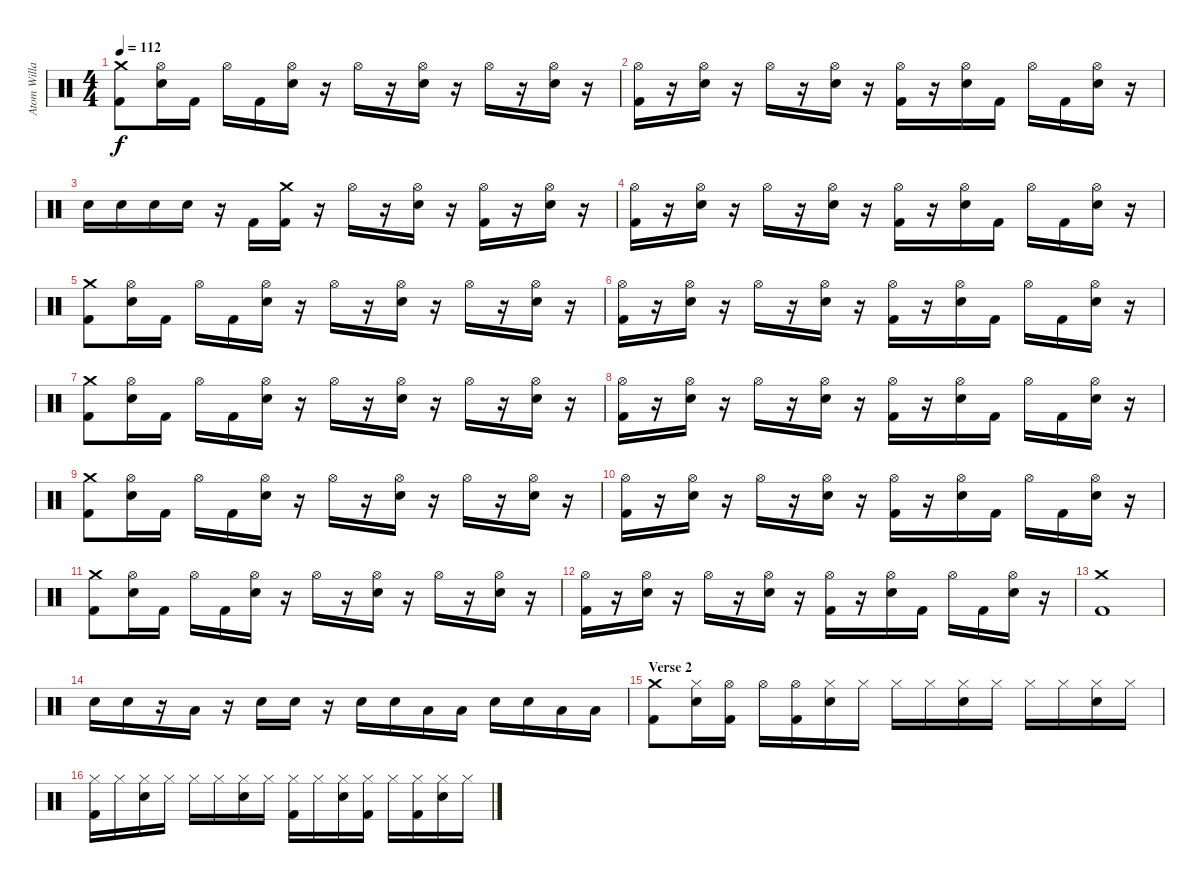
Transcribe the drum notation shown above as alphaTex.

\track ("Atom Willard Drums" "Atom Willa") {instrument percussion}
\staff {score}
\articulation defaults
\ts (4 4)
\tempo 112
\clef neutral
\ks c
("Crash medium (hit)" "Kick (hit) 2").8{dy f} ("Hi-Hat (open)" "Electric Snare (hit)").16 "Kick (hit) 2".16 "Hi-Hat (open)".16 "Kick (hit) 2".16 ("Hi-Hat (open)" "Electric Snare (hit)").16 r.16 "Hi-Hat (open)".16 r.16 ("Hi-Hat (open)" "Electric Snare (hit)").16 r.16 "Hi-Hat (open)".16 r.16 ("Hi-Hat (open)" "Electric Snare (hit)").16 r.16 |
("Hi-Hat (open)" "Kick (hit) 2").16 r.16 ("Hi-Hat (open)" "Electric Snare (hit)").16 r.16 "Hi-Hat (open)".16 r.16 ("Hi-Hat (open)" "Electric Snare (hit)").16 r.16 ("Hi-Hat (open)" "Kick (hit) 2").16 r.16 ("Hi-Hat (open)" "Electric Snare (hit)").16 "Kick (hit) 2".16 "Hi-Hat (open)".16 "Kick (hit) 2".16 ("Hi-Hat (open)" "Electric Snare (hit)").16 r.16 |
"Electric Snare (hit)".16 "Electric Snare (hit)".16 "Electric Snare (hit)".16 "Electric Snare (hit)".16 r.16 "Kick (hit) 2".16 ("Crash medium (hit)" "Kick (hit) 2").16 r.16 "Hi-Hat (open)".16 r.16 ("Hi-Hat (open)" "Electric Snare (hit)").16 r.16 ("Hi-Hat (open)" "Kick (hit) 2").16 r.16 ("Hi-Hat (open)" "Electric Snare (hit)").16 r.16 |
("Hi-Hat (open)" "Kick (hit) 2").16 r.16 ("Hi-Hat (open)" "Electric Snare (hit)").16 r.16 "Hi-Hat (open)".16 r.16 ("Hi-Hat (open)" "Electric Snare (hit)").16 r.16 ("Hi-Hat (open)" "Kick (hit) 2").16 r.16 ("Hi-Hat (open)" "Electric Snare (hit)").16 "Kick (hit) 2".16 "Hi-Hat (open)".16 "Kick (hit) 2".16 ("Hi-Hat (open)" "Electric Snare (hit)").16 r.16 |
("Crash medium (hit)" "Kick (hit) 2").8 ("Hi-Hat (open)" "Electric Snare (hit)").16 "Kick (hit) 2".16 "Hi-Hat (open)".16 "Kick (hit) 2".16 ("Hi-Hat (open)" "Electric Snare (hit)").16 r.16 "Hi-Hat (open)".16 r.16 ("Hi-Hat (open)" "Electric Snare (hit)").16 r.16 "Hi-Hat (open)".16 r.16 ("Hi-Hat (open)" "Electric Snare (hit)").16 r.16 |
("Hi-Hat (open)" "Kick (hit) 2").16 r.16 ("Hi-Hat (open)" "Electric Snare (hit)").16 r.16 "Hi-Hat (open)".16 r.16 ("Hi-Hat (open)" "Electric Snare (hit)").16 r.16 ("Hi-Hat (open)" "Kick (hit) 2").16 r.16 ("Hi-Hat (open)" "Electric Snare (hit)").16 "Kick (hit) 2".16 "Hi-Hat (open)".16 "Kick (hit) 2".16 ("Hi-Hat (open)" "Electric Snare (hit)").16 r.16 |
("Crash medium (hit)" "Kick (hit) 2").8 ("Hi-Hat (open)" "Electric Snare (hit)").16 "Kick (hit) 2".16 "Hi-Hat (open)".16 "Kick (hit) 2".16 ("Hi-Hat (open)" "Electric Snare (hit)").16 r.16 "Hi-Hat (open)".16 r.16 ("Hi-Hat (open)" "Electric Snare (hit)").16 r.16 "Hi-Hat (open)".16 r.16 ("Hi-Hat (open)" "Electric Snare (hit)").16 r.16 |
("Hi-Hat (open)" "Kick (hit) 2").16 r.16 ("Hi-Hat (open)" "Electric Snare (hit)").16 r.16 "Hi-Hat (open)".16 r.16 ("Hi-Hat (open)" "Electric Snare (hit)").16 r.16 ("Hi-Hat (open)" "Kick (hit) 2").16 r.16 ("Hi-Hat (open)" "Electric Snare (hit)").16 "Kick (hit) 2".16 "Hi-Hat (open)".16 "Kick (hit) 2".16 ("Hi-Hat (open)" "Electric Snare (hit)").16 r.16 |
("Crash medium (hit)" "Kick (hit) 2").8 ("Hi-Hat (open)" "Electric Snare (hit)").16 "Kick (hit) 2".16 "Hi-Hat (open)".16 "Kick (hit) 2".16 ("Hi-Hat (open)" "Electric Snare (hit)").16 r.16 "Hi-Hat (open)".16 r.16 ("Hi-Hat (open)" "Electric Snare (hit)").16 r.16 "Hi-Hat (open)".16 r.16 ("Hi-Hat (open)" "Electric Snare (hit)").16 r.16 |
("Hi-Hat (open)" "Kick (hit) 2").16 r.16 ("Hi-Hat (open)" "Electric Snare (hit)").16 r.16 "Hi-Hat (open)".16 r.16 ("Hi-Hat (open)" "Electric Snare (hit)").16 r.16 ("Hi-Hat (open)" "Kick (hit) 2").16 r.16 ("Hi-Hat (open)" "Electric Snare (hit)").16 "Kick (hit) 2".16 "Hi-Hat (open)".16 "Kick (hit) 2".16 ("Hi-Hat (open)" "Electric Snare (hit)").16 r.16 |
("Crash medium (hit)" "Kick (hit) 2").8 ("Hi-Hat (open)" "Electric Snare (hit)").16 "Kick (hit) 2".16 "Hi-Hat (open)".16 "Kick (hit) 2".16 ("Hi-Hat (open)" "Electric Snare (hit)").16 r.16 "Hi-Hat (open)".16 r.16 ("Hi-Hat (open)" "Electric Snare (hit)").16 r.16 "Hi-Hat (open)".16 r.16 ("Hi-Hat (open)" "Electric Snare (hit)").16 r.16 |
("Hi-Hat (open)" "Kick (hit) 2").16 r.16 ("Hi-Hat (open)" "Electric Snare (hit)").16 r.16 "Hi-Hat (open)".16 r.16 ("Hi-Hat (open)" "Electric Snare (hit)").16 r.16 ("Hi-Hat (open)" "Kick (hit) 2").16 r.16 ("Hi-Hat (open)" "Electric Snare (hit)").16 "Kick (hit) 2".16 "Hi-Hat (open)".16 "Kick (hit) 2".16 ("Hi-Hat (open)" "Electric Snare (hit)").16 r.16 |
("Crash medium (hit)" "Kick (hit) 2").1 |
"Electric Snare (hit)".16 "Electric Snare (hit)".16 r.16 "Low Tom (hit)".16 r.16 "Electric Snare (hit)".16 "Electric Snare (hit)".16 r.16 "Electric Snare (hit)".16 "Electric Snare (hit)".16 "Low Tom (hit)".16 "Low Tom (hit)".16 "Electric Snare (hit)".16 "Electric Snare (hit)".16 "Low Tom (hit)".16 "Low Tom (hit)".16 |
\section ("" "Verse 2")
("Crash medium (hit)" "Kick (hit) 2").8 ("Hi-Hat (closed)" "Electric Snare (hit)").16 ("Hi-Hat (open)" "Kick (hit) 2").16 "Hi-Hat (open)".16 ("Hi-Hat (open)" "Kick (hit) 2").16 ("Hi-Hat (closed)" "Electric Snare (hit)").16 "Hi-Hat (closed)".16 "Hi-Hat (closed)".16 "Hi-Hat (closed)".16 ("Hi-Hat (closed)" "Electric Snare (hit)").16 "Hi-Hat (closed)".16 "Hi-Hat (closed)".16 "Hi-Hat (closed)".16 ("Hi-Hat (closed)" "Electric Snare (hit)").16 "Hi-Hat (closed)".16 |
("Hi-Hat (closed)" "Kick (hit) 2").16 "Hi-Hat (closed)".16 ("Hi-Hat (closed)" "Electric Snare (hit)").16 "Hi-Hat (closed)".16 "Hi-Hat (closed)".16 "Hi-Hat (closed)".16 ("Hi-Hat (closed)" "Electric Snare (hit)").16 "Hi-Hat (closed)".16 ("Hi-Hat (closed)" "Kick (hit) 2").16 "Hi-Hat (closed)".16 ("Hi-Hat (closed)" "Electric Snare (hit)").16 ("Hi-Hat (closed)" "Kick (hit) 2").16 "Hi-Hat (closed)".16 ("Hi-Hat (closed)" "Kick (hit) 2").16 ("Hi-Hat (closed)" "Electric Snare (hit)").16 "Hi-Hat (closed)".16
